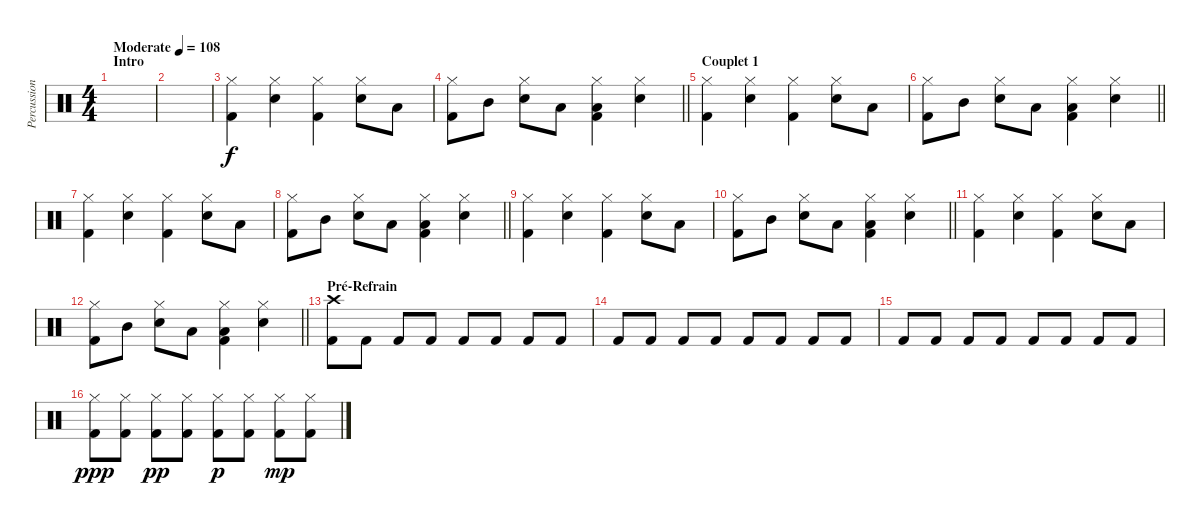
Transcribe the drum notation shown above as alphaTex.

\track ("Percussions" "Percussion") {instrument percussion}
\staff {score}
\articulation defaults
\ts (4 4)
\section ("" "Intro")
\tempo (108 "Moderate")
\clef neutral
\ks c
|
|
("Hi-Hat (closed)" "Kick (hit) 2").4 ("Hi-Hat (closed)" "Snare (hit) 2").4 ("Hi-Hat (closed)" "Kick (hit) 2").4 ("Hi-Hat (closed)" "Snare (hit) 2").8 "Low Tom (hit)".8 |
\barLineRight lightlight
("Hi-Hat (closed)" "Kick (hit) 2").8 "Mid Tom (hit)".8 ("Hi-Hat (closed)" "Snare (hit) 2").8 "Low Floor Tom (hit)".8 ("Hi-Hat (closed)" "Low Floor Tom (hit)" "Kick (hit) 2").4 ("Hi-Hat (closed)" "Snare (hit) 2").4 |
\section ("" "Couplet 1")
("Hi-Hat (closed)" "Kick (hit) 2").4 ("Hi-Hat (closed)" "Snare (hit) 2").4 ("Hi-Hat (closed)" "Kick (hit) 2").4 ("Hi-Hat (closed)" "Snare (hit) 2").8 "Low Tom (hit)".8 |
\barLineRight lightlight
("Hi-Hat (closed)" "Kick (hit) 2").8 "Mid Tom (hit)".8 ("Hi-Hat (closed)" "Snare (hit) 2").8 "Low Floor Tom (hit)".8 ("Hi-Hat (closed)" "Low Floor Tom (hit)" "Kick (hit) 2").4 ("Hi-Hat (closed)" "Snare (hit) 2").4 |
("Hi-Hat (closed)" "Kick (hit) 2").4 ("Hi-Hat (closed)" "Snare (hit) 2").4 ("Hi-Hat (closed)" "Kick (hit) 2").4 ("Hi-Hat (closed)" "Snare (hit) 2").8 "Low Tom (hit)".8 |
\barLineRight lightlight
("Hi-Hat (closed)" "Kick (hit) 2").8 "Mid Tom (hit)".8 ("Hi-Hat (closed)" "Snare (hit) 2").8 "Low Floor Tom (hit)".8 ("Hi-Hat (closed)" "Low Floor Tom (hit)" "Kick (hit) 2").4 ("Hi-Hat (closed)" "Snare (hit) 2").4 |
("Hi-Hat (closed)" "Kick (hit) 2").4 ("Hi-Hat (closed)" "Snare (hit) 2").4 ("Hi-Hat (closed)" "Kick (hit) 2").4 ("Hi-Hat (closed)" "Snare (hit) 2").8 "Low Tom (hit)".8 |
\barLineRight lightlight
("Hi-Hat (closed)" "Kick (hit) 2").8 "Mid Tom (hit)".8 ("Hi-Hat (closed)" "Snare (hit) 2").8 "Low Floor Tom (hit)".8 ("Hi-Hat (closed)" "Low Floor Tom (hit)" "Kick (hit) 2").4 ("Hi-Hat (closed)" "Snare (hit) 2").4 |
("Hi-Hat (closed)" "Kick (hit) 2").4 ("Hi-Hat (closed)" "Snare (hit) 2").4 ("Hi-Hat (closed)" "Kick (hit) 2").4 ("Hi-Hat (closed)" "Snare (hit) 2").8 "Low Tom (hit)".8 |
\barLineRight lightlight
("Hi-Hat (closed)" "Kick (hit) 2").8 "Mid Tom (hit)".8 ("Hi-Hat (closed)" "Snare (hit) 2").8 "Low Floor Tom (hit)".8 ("Hi-Hat (closed)" "Low Floor Tom (hit)" "Kick (hit) 2").4 ("Hi-Hat (closed)" "Snare (hit) 2").4 |
\section ("" "Pré-Refrain")
("Crash high (hit)" "Kick (hit) 2").8 "Kick (hit) 2".8 "Kick (hit) 2".8 "Kick (hit) 2".8 "Kick (hit) 2".8 "Kick (hit) 2".8 "Kick (hit) 2".8 "Kick (hit) 2".8 |
"Kick (hit) 2".8 "Kick (hit) 2".8 "Kick (hit) 2".8 "Kick (hit) 2".8 "Kick (hit) 2".8 "Kick (hit) 2".8 "Kick (hit) 2".8 "Kick (hit) 2".8 |
"Kick (hit) 2".8 "Kick (hit) 2".8 "Kick (hit) 2".8 "Kick (hit) 2".8 "Kick (hit) 2".8 "Kick (hit) 2".8 "Kick (hit) 2".8 "Kick (hit) 2".8 |
("Hi-Hat (closed)" "Kick (hit) 2").8{dy ppp} ("Hi-Hat (closed)" "Kick (hit) 2").8 ("Hi-Hat (closed)" "Kick (hit) 2").8{dy pp} ("Hi-Hat (closed)" "Kick (hit) 2").8 ("Hi-Hat (closed)" "Kick (hit) 2").8{dy p} ("Hi-Hat (closed)" "Kick (hit) 2").8 ("Hi-Hat (closed)" "Kick (hit) 2").8{dy mp} ("Hi-Hat (closed)" "Kick (hit) 2").8
